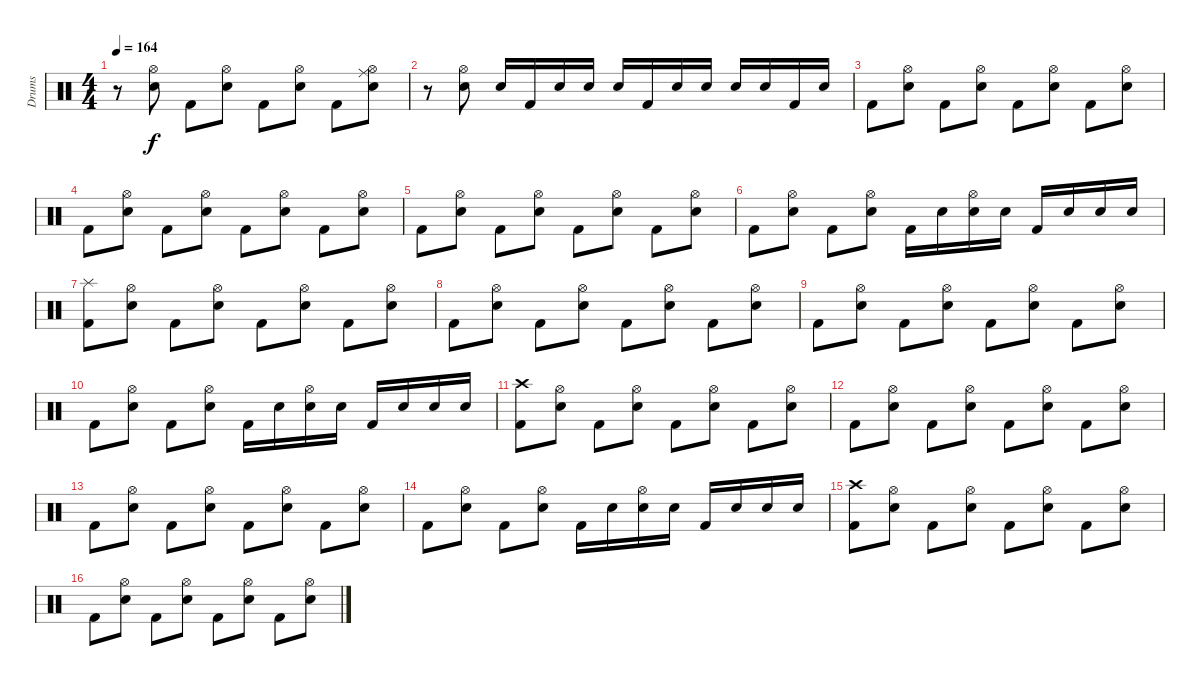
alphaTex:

\track ("Drums " "Drums ") {instrument percussion}
\staff {score}
\articulation defaults
\ts (4 4)
\tempo 164
\clef neutral
\ks c
r.8{dy f} ("Snare (hit) 2" "Hi-Hat (open)").8 "Kick (hit) 2".8 ("Snare (hit) 2" "Hi-Hat (open)").8 "Kick (hit) 2".8 ("Snare (hit) 2" "Hi-Hat (open)").8 "Kick (hit) 2".8 ("Snare (hit) 2" "Ride (middle)" "Hi-Hat (open)").8 |
r.8 ("Snare (hit) 2" "Hi-Hat (open)").8 "Snare (hit) 2".16 "Kick (hit) 2".16 "Snare (hit) 2".16 "Snare (hit) 2".16 "Snare (hit) 2".16 "Kick (hit) 2".16 "Snare (hit) 2".16 "Snare (hit) 2".16 "Snare (hit) 2".16 "Snare (hit) 2".16 "Kick (hit) 2".16 "Snare (hit) 2".16 |
"Kick (hit) 2".8 ("Snare (hit) 2" "Hi-Hat (open)").8 "Kick (hit) 2".8 ("Snare (hit) 2" "Hi-Hat (open)").8 "Kick (hit) 2".8 ("Snare (hit) 2" "Hi-Hat (open)").8 "Kick (hit) 2".8 ("Snare (hit) 2" "Hi-Hat (open)").8 |
"Kick (hit) 2".8 ("Snare (hit) 2" "Hi-Hat (open)").8 "Kick (hit) 2".8 ("Snare (hit) 2" "Hi-Hat (open)").8 "Kick (hit) 2".8 ("Snare (hit) 2" "Hi-Hat (open)").8 "Kick (hit) 2".8 ("Snare (hit) 2" "Hi-Hat (open)").8 |
"Kick (hit) 2".8 ("Snare (hit) 2" "Hi-Hat (open)").8 "Kick (hit) 2".8 ("Snare (hit) 2" "Hi-Hat (open)").8 "Kick (hit) 2".8 ("Snare (hit) 2" "Hi-Hat (open)").8 "Kick (hit) 2".8 ("Snare (hit) 2" "Hi-Hat (open)").8 |
"Kick (hit) 2".8 ("Snare (hit) 2" "Hi-Hat (open)").8 "Kick (hit) 2".8 ("Snare (hit) 2" "Hi-Hat (open)").8 "Kick (hit) 2".16 "Snare (hit) 2".16 ("Snare (hit) 2" "Hi-Hat (open)").16 "Snare (hit) 2".16 "Kick (hit) 2".16 "Snare (hit) 2".16 "Snare (hit) 2".16 "Snare (hit) 2".16 |
("Kick (hit) 2" "Splash (hit)").8 ("Snare (hit) 2" "Hi-Hat (open)").8 "Kick (hit) 2".8 ("Snare (hit) 2" "Hi-Hat (open)").8 "Kick (hit) 2".8 ("Snare (hit) 2" "Hi-Hat (open)").8 "Kick (hit) 2".8 ("Snare (hit) 2" "Hi-Hat (open)").8 |
"Kick (hit) 2".8 ("Snare (hit) 2" "Hi-Hat (open)").8 "Kick (hit) 2".8 ("Snare (hit) 2" "Hi-Hat (open)").8 "Kick (hit) 2".8 ("Snare (hit) 2" "Hi-Hat (open)").8 "Kick (hit) 2".8 ("Snare (hit) 2" "Hi-Hat (open)").8 |
"Kick (hit) 2".8 ("Snare (hit) 2" "Hi-Hat (open)").8 "Kick (hit) 2".8 ("Snare (hit) 2" "Hi-Hat (open)").8 "Kick (hit) 2".8 ("Snare (hit) 2" "Hi-Hat (open)").8 "Kick (hit) 2".8 ("Snare (hit) 2" "Hi-Hat (open)").8 |
"Kick (hit) 2".8 ("Snare (hit) 2" "Hi-Hat (open)").8 "Kick (hit) 2".8 ("Snare (hit) 2" "Hi-Hat (open)").8 "Kick (hit) 2".16 "Snare (hit) 2".16 ("Snare (hit) 2" "Hi-Hat (open)").16 "Snare (hit) 2".16 "Kick (hit) 2".16 "Snare (hit) 2".16 "Snare (hit) 2".16 "Snare (hit) 2".16 |
("Kick (hit) 2" "Crash high (hit)").8 ("Snare (hit) 2" "Hi-Hat (open)").8 "Kick (hit) 2".8 ("Snare (hit) 2" "Hi-Hat (open)").8 "Kick (hit) 2".8 ("Snare (hit) 2" "Hi-Hat (open)").8 "Kick (hit) 2".8 ("Snare (hit) 2" "Hi-Hat (open)").8 |
"Kick (hit) 2".8 ("Snare (hit) 2" "Hi-Hat (open)").8 "Kick (hit) 2".8 ("Snare (hit) 2" "Hi-Hat (open)").8 "Kick (hit) 2".8 ("Snare (hit) 2" "Hi-Hat (open)").8 "Kick (hit) 2".8 ("Snare (hit) 2" "Hi-Hat (open)").8 |
"Kick (hit) 2".8 ("Snare (hit) 2" "Hi-Hat (open)").8 "Kick (hit) 2".8 ("Snare (hit) 2" "Hi-Hat (open)").8 "Kick (hit) 2".8 ("Snare (hit) 2" "Hi-Hat (open)").8 "Kick (hit) 2".8 ("Snare (hit) 2" "Hi-Hat (open)").8 |
"Kick (hit) 2".8 ("Snare (hit) 2" "Hi-Hat (open)").8 "Kick (hit) 2".8 ("Snare (hit) 2" "Hi-Hat (open)").8 "Kick (hit) 2".16 "Snare (hit) 2".16 ("Snare (hit) 2" "Hi-Hat (open)").16 "Snare (hit) 2".16 "Kick (hit) 2".16 "Snare (hit) 2".16 "Snare (hit) 2".16 "Snare (hit) 2".16 |
("Crash high (hit)" "Kick (hit) 2").8 ("Snare (hit) 2" "Hi-Hat (open)").8 "Kick (hit) 2".8 ("Snare (hit) 2" "Hi-Hat (open)").8 "Kick (hit) 2".8 ("Snare (hit) 2" "Hi-Hat (open)").8 "Kick (hit) 2".8 ("Snare (hit) 2" "Hi-Hat (open)").8 |
"Kick (hit) 2".8 ("Snare (hit) 2" "Hi-Hat (open)").8 "Kick (hit) 2".8 ("Snare (hit) 2" "Hi-Hat (open)").8 "Kick (hit) 2".8 ("Snare (hit) 2" "Hi-Hat (open)").8 "Kick (hit) 2".8 ("Snare (hit) 2" "Hi-Hat (open)").8
